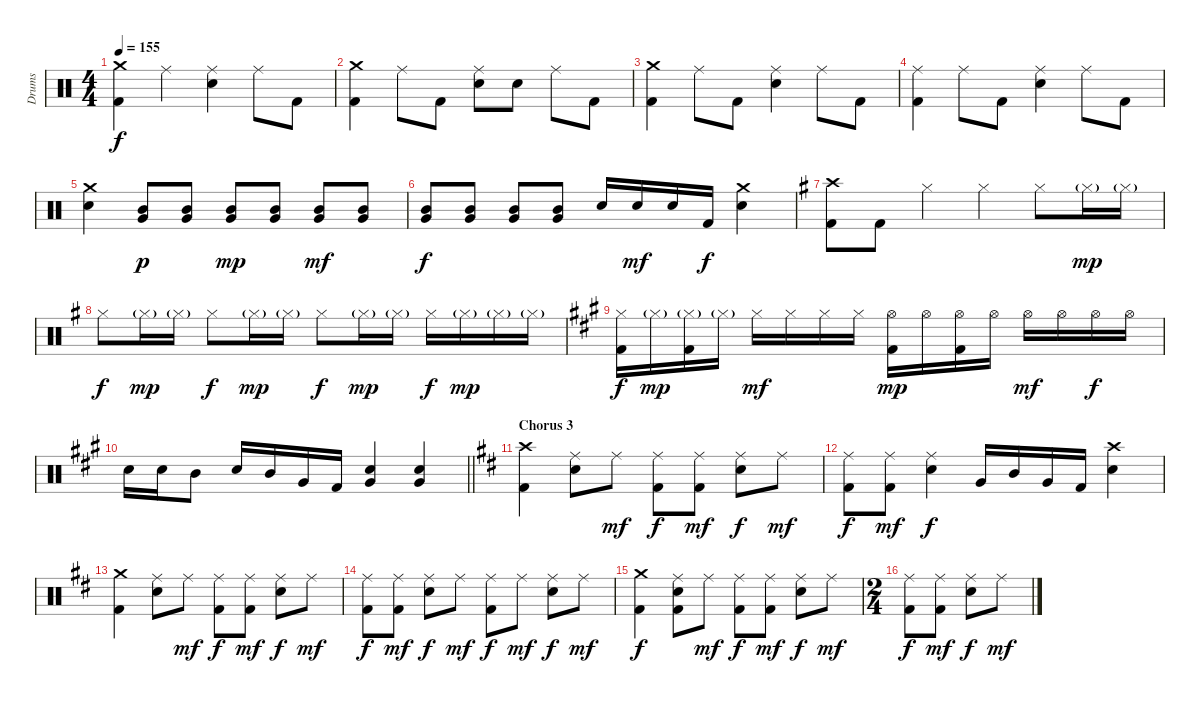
\track ("Drums" "Drums") {instrument percussion}
\staff {score}
\articulation defaults
\ts (4 4)
\tempo 155
\clef neutral
\ks aminor
("Crash medium (hit)" "Kick (hit) 2").4{dy f} "Ride (middle)".4 ("Ride (middle)" "Electric Snare (hit)").4 "Ride (middle)".8 "Kick (hit) 2".8 |
("Crash medium (hit)" "Kick (hit) 2").4 "Ride (middle)".8 "Kick (hit) 2".8 ("Ride (middle)" "Electric Snare (hit)").8 "Electric Snare (hit)".8 "Ride (middle)".8 "Kick (hit) 2".8 |
("Crash medium (hit)" "Kick (hit) 2").4 "Ride (middle)".8 "Kick (hit) 2".8 ("Ride (middle)" "Electric Snare (hit)").4 "Ride (middle)".8 "Kick (hit) 2".8 |
("Ride (middle)" "Kick (hit) 2").4 "Ride (middle)".8 "Kick (hit) 2".8 ("Ride (middle)" "Electric Snare (hit)").4 "Ride (middle)".8 "Kick (hit) 2".8 |
("Crash medium (hit)" "Electric Snare (hit)").4 ("Mid Tom (hit)" "Very Low Tom (hit)").8{dy p} ("Mid Tom (hit)" "Very Low Tom (hit)").8 ("Mid Tom (hit)" "Very Low Tom (hit)").8{dy mp} ("Mid Tom (hit)" "Very Low Tom (hit)").8 ("Mid Tom (hit)" "Very Low Tom (hit)").8{dy mf} ("Mid Tom (hit)" "Very Low Tom (hit)").8 |
("Mid Tom (hit)" "Very Low Tom (hit)").8{dy f} ("Mid Tom (hit)" "Very Low Tom (hit)").8 ("Mid Tom (hit)" "Very Low Tom (hit)").8 ("Mid Tom (hit)" "Very Low Tom (hit)").8 "Electric Snare (hit)".16 "Electric Snare (hit)".16{dy mf} "Electric Snare (hit)".16 "Kick (hit) 2".16{dy f} ("Crash medium (hit)" "Electric Snare (hit)").4 |
\ks eminor
("Crash high (hit)" "Kick (hit) 2").8 "Kick (hit) 2".8 "Hi-Hat (closed)".4 "Hi-Hat (closed)".4 "Hi-Hat (closed)".8 "Hi-Hat (closed)"{g}.16{dy mp} "Hi-Hat (closed)"{g}.16 |
"Hi-Hat (closed)".8{dy f} "Hi-Hat (closed)"{g}.16{dy mp} "Hi-Hat (closed)"{g}.16 "Hi-Hat (closed)".8{dy f} "Hi-Hat (closed)"{g}.16{dy mp} "Hi-Hat (closed)"{g}.16 "Hi-Hat (closed)".8{dy f} "Hi-Hat (closed)"{g}.16{dy mp} "Hi-Hat (closed)"{g}.16 "Hi-Hat (closed)".16{dy f} "Hi-Hat (closed)"{g}.16{dy mp} "Hi-Hat (closed)"{g}.16 "Hi-Hat (closed)"{g}.16 |
\ks f#minor
("Hi-Hat (closed)" "Kick (hit) 2").16{dy f} "Hi-Hat (closed)"{g}.16{dy mp} ("Hi-Hat (closed)"{g} "Kick (hit) 2").16 "Hi-Hat (closed)"{g}.16 "Hi-Hat (closed)".16{dy mf} "Hi-Hat (closed)".16 "Hi-Hat (closed)".16 "Hi-Hat (closed)".16 ("Hi-Hat (open)" "Kick (hit) 2").16{dy mp} "Hi-Hat (open)".16 ("Hi-Hat (open)" "Kick (hit) 2").16 "Hi-Hat (open)".16 "Hi-Hat (open)".16{dy mf} "Hi-Hat (open)".16 "Hi-Hat (open)".16{dy f} "Hi-Hat (open)".16 |
\barLineRight lightlight "Electric Snare (hit)".16 "Electric Snare (hit)".16 "Mid Tom (hit)".8 "Electric Snare (hit)".16 "Mid Tom (hit)".16 "Very Low Tom (hit)".16 "Kick (hit) 2".16
("Electric Snare (hit)" "Very Low Tom (hit)").4 ("Electric Snare (hit)" "Very Low Tom (hit)").4 |
\section ("" "Chorus 3")
\ks bminor
("Crash high (hit)" "Kick (hit) 2").4 ("Ride (middle)" "Electric Snare (hit)").8 "Ride (middle)".8{dy mf} ("Ride (middle)" "Kick (hit) 2").8{dy f} ("Ride (middle)" "Kick (hit) 2").8{dy mf} ("Ride (middle)" "Electric Snare (hit)").8{dy f} "Ride (middle)".8{dy mf} |
("Ride (middle)" "Kick (hit) 2").8{dy f} ("Ride (middle)" "Kick (hit) 2").8{dy mf} ("Ride (middle)" "Electric Snare (hit)").4{dy f} "Very Low Tom (hit)".16 "Mid Tom (hit)".16 "Very Low Tom (hit)".16 "Kick (hit) 2".16 ("Crash high (hit)" "Electric Snare (hit)").4 |
("Crash medium (hit)" "Kick (hit) 2").4 ("Ride (middle)" "Electric Snare (hit)").8 "Ride (middle)".8{dy mf} ("Ride (middle)" "Kick (hit) 2").8{dy f} ("Ride (middle)" "Kick (hit) 2").8{dy mf} ("Ride (middle)" "Electric Snare (hit)").8{dy f} "Ride (middle)".8{dy mf} |
("Ride (middle)" "Kick (hit) 2").8{dy f} ("Ride (middle)" "Kick (hit) 2").8{dy mf} ("Ride (middle)" "Electric Snare (hit)").8{dy f} "Ride (middle)".8{dy mf} ("Ride (middle)" "Kick (hit) 2").8{dy f} "Ride (middle)".8{dy mf} ("Ride (middle)" "Electric Snare (hit)").8{dy f} "Ride (middle)".8{dy mf} |
("Crash medium (hit)" "Kick (hit) 2").4{dy f} ("Ride (middle)" "Electric Snare (hit)" "Kick (hit) 2").8 "Ride (middle)".8{dy mf} ("Ride (middle)" "Kick (hit) 2").8{dy f} ("Ride (middle)" "Kick (hit) 2").8{dy mf} ("Ride (middle)" "Electric Snare (hit)").8{dy f} "Ride (middle)".8{dy mf} |
\ts (2 4)
("Ride (middle)" "Kick (hit) 2").8{dy f} ("Ride (middle)" "Kick (hit) 2").8{dy mf} ("Ride (middle)" "Electric Snare (hit)").8{dy f} "Ride (middle)".8{dy mf}
